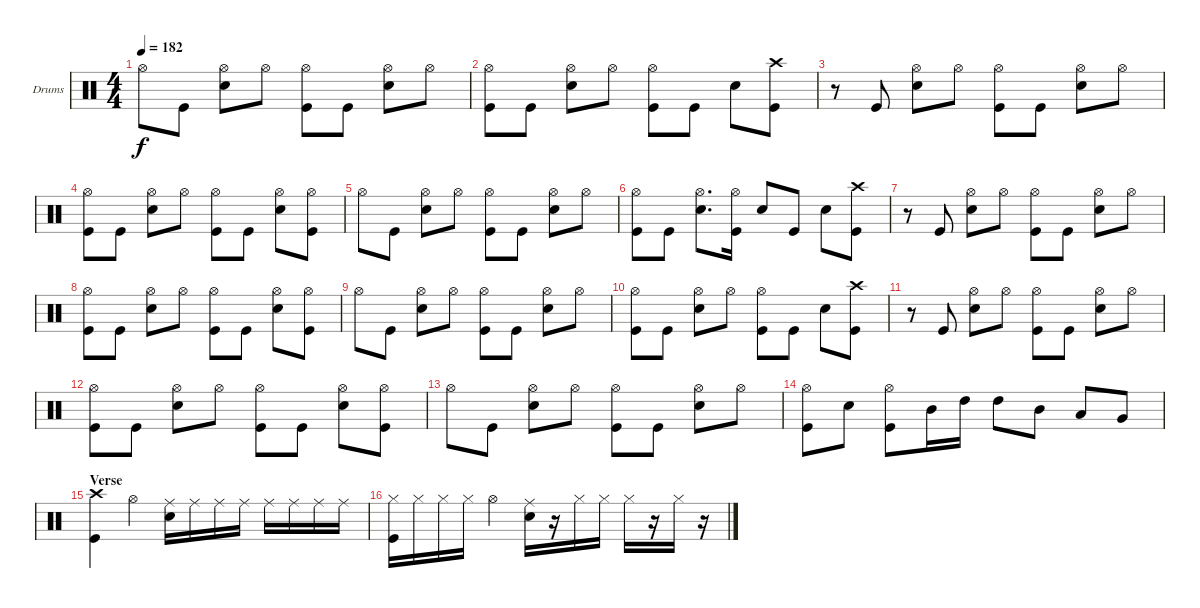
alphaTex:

\defaultSystemsLayout 4
\bracketExtendMode groupsimilarinstruments
\firstSystemTrackNameOrientation horizontal
\otherSystemsTrackNameOrientation horizontal
\track ("Drumkit" "Drums") {instrument percussion}
\staff {score}
\articulation defaults
\ts (4 4)
\tempo 182
\clef neutral
\ks c "Hi-Hat (open)".8{dy f} "Kick (hit)".8
("Snare (hit) 2" "Hi-Hat (open)").8 "Hi-Hat (open)".8 ("Kick (hit)" "Hi-Hat (open)").8 "Kick (hit)".8 ("Snare (hit) 2" "Hi-Hat (open)").8 "Hi-Hat (open)".8 |
("Kick (hit)" "Hi-Hat (open)").8 "Kick (hit)".8 ("Snare (hit) 2" "Hi-Hat (open)").8 "Hi-Hat (open)".8 ("Kick (hit)" "Hi-Hat (open)").8 "Kick (hit)".8 "Snare (hit) 2".8 ("Kick (hit)" "Crash high (hit)").8 |
r.8 "Kick (hit)".8 ("Snare (hit) 2" "Hi-Hat (open)").8 "Hi-Hat (open)".8 ("Kick (hit)" "Hi-Hat (open)").8 "Kick (hit)".8 ("Snare (hit) 2" "Hi-Hat (open)").8 "Hi-Hat (open)".8 |
("Kick (hit)" "Hi-Hat (open)").8 "Kick (hit)".8 ("Snare (hit) 2" "Hi-Hat (open)").8 "Hi-Hat (open)".8 ("Kick (hit)" "Hi-Hat (open)").8 "Kick (hit)".8 ("Snare (hit) 2" "Hi-Hat (open)").8 ("Kick (hit)" "Hi-Hat (open)").8 |
"Hi-Hat (open)".8 "Kick (hit)".8 ("Snare (hit) 2" "Hi-Hat (open)").8 "Hi-Hat (open)".8 ("Kick (hit)" "Hi-Hat (open)").8 "Kick (hit)".8 ("Snare (hit) 2" "Hi-Hat (open)").8 "Hi-Hat (open)".8 |
("Kick (hit)" "Hi-Hat (open)").8 "Kick (hit)".8 ("Snare (hit) 2" "Hi-Hat (open)").8{d} ("Kick (hit)" "Hi-Hat (open)").16 "Snare (hit) 2".8 "Kick (hit)".8 "Snare (hit) 2".8 ("Kick (hit)" "Crash high (hit)").8 |
r.8 "Kick (hit)".8 ("Snare (hit) 2" "Hi-Hat (open)").8 "Hi-Hat (open)".8 ("Kick (hit)" "Hi-Hat (open)").8 "Kick (hit)".8 ("Snare (hit) 2" "Hi-Hat (open)").8 "Hi-Hat (open)".8 |
("Kick (hit)" "Hi-Hat (open)").8 "Kick (hit)".8 ("Snare (hit) 2" "Hi-Hat (open)").8 "Hi-Hat (open)".8 ("Kick (hit)" "Hi-Hat (open)").8 "Kick (hit)".8 ("Snare (hit) 2" "Hi-Hat (open)").8 ("Kick (hit)" "Hi-Hat (open)").8 |
"Hi-Hat (open)".8 "Kick (hit)".8 ("Snare (hit) 2" "Hi-Hat (open)").8 "Hi-Hat (open)".8 ("Kick (hit)" "Hi-Hat (open)").8 "Kick (hit)".8 ("Snare (hit) 2" "Hi-Hat (open)").8 "Hi-Hat (open)".8 |
("Kick (hit)" "Hi-Hat (open)").8 "Kick (hit)".8 ("Snare (hit) 2" "Hi-Hat (open)").8 "Hi-Hat (open)".8 ("Kick (hit)" "Hi-Hat (open)").8 "Kick (hit)".8 "Snare (hit) 2".8 ("Kick (hit)" "Crash high (hit)").8 |
r.8 "Kick (hit)".8 ("Snare (hit) 2" "Hi-Hat (open)").8 "Hi-Hat (open)".8 ("Kick (hit)" "Hi-Hat (open)").8 "Kick (hit)".8 ("Snare (hit) 2" "Hi-Hat (open)").8 "Hi-Hat (open)".8 |
("Kick (hit)" "Hi-Hat (open)").8 "Kick (hit)".8 ("Snare (hit) 2" "Hi-Hat (open)").8 "Hi-Hat (open)".8 ("Kick (hit)" "Hi-Hat (open)").8 "Kick (hit)".8 ("Snare (hit) 2" "Hi-Hat (open)").8 ("Kick (hit)" "Hi-Hat (open)").8 |
"Hi-Hat (open)".8 "Kick (hit)".8 ("Snare (hit) 2" "Hi-Hat (open)").8 "Hi-Hat (open)".8 ("Kick (hit)" "Hi-Hat (open)").8 "Kick (hit)".8 ("Snare (hit) 2" "Hi-Hat (open)").8 "Hi-Hat (open)".8 |
("Kick (hit)" "Hi-Hat (open)").8 "Snare (hit) 2".8 ("Kick (hit)" "Hi-Hat (open)").8 "Mid Tom (hit)".16 "High Tom (hit)".16 "High Tom (hit)".8 "Mid Tom (hit)".8 "Low Tom (hit)".8 "Very Low Tom (hit)".8 |
\section ("" "Verse")
("Kick (hit)" "Crash high (hit)").4 "Hi-Hat (open)".4 ("Snare (hit) 2" "Ride (middle)").16 "Ride (middle)".16 "Ride (middle)".16 "Ride (middle)".16 "Ride (middle)".16 "Ride (middle)".16 "Ride (middle)".16 "Ride (middle)".16 |
("Kick (hit)" "Hi-Hat (closed)").16 "Hi-Hat (closed)".16 "Hi-Hat (closed)".16 "Hi-Hat (closed)".16 "Hi-Hat (open)".4 ("Snare (hit) 2" "Ride (middle)").16 r.16 "Hi-Hat (closed)".16 "Hi-Hat (closed)".16 "Hi-Hat (closed)".16 r.16 "Hi-Hat (closed)".16 r.16
